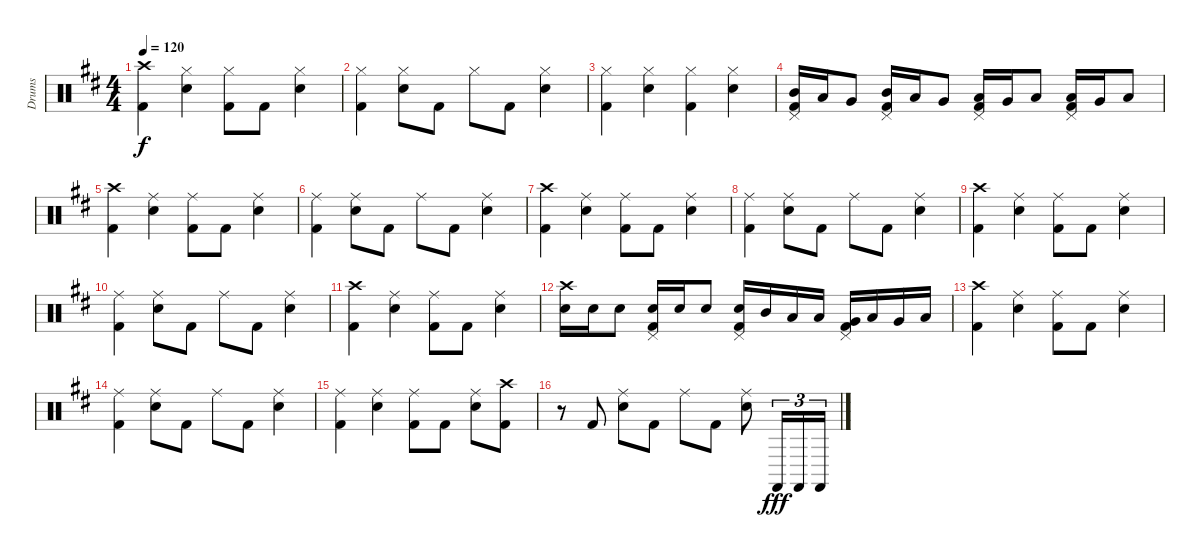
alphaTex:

\track ("Drums" "Drums") {instrument percussion}
\staff {score}
\articulation defaults
\ts (4 4)
\tempo 120
\clef neutral
\ks bminor
("Crash high (hit)" "Kick (hit) 2").4{dy f} ("Hi-Hat (closed)" "Electric Snare (hit)").4 ("Hi-Hat (closed)" "Kick (hit) 2").8 "Kick (hit) 2".8 ("Hi-Hat (closed)" "Electric Snare (hit)").4 |
("Hi-Hat (closed)" "Kick (hit) 2").4 ("Hi-Hat (closed)" "Electric Snare (hit)").8 "Kick (hit) 2".8 "Hi-Hat (closed)".8 "Kick (hit) 2".8 ("Hi-Hat (closed)" "Electric Snare (hit)").4 |
("Hi-Hat (closed)" "Kick (hit) 2").4 ("Hi-Hat (closed)" "Electric Snare (hit)").4 ("Hi-Hat (closed)" "Kick (hit) 2").4 ("Hi-Hat (closed)" "Electric Snare (hit)").4 |
("Pedal Hi-Hat (hit)" "Mid Tom (hit)" "Kick (hit) 2").16 "Low Tom (hit)".16 "Very Low Tom (hit)".8 ("Pedal Hi-Hat (hit)" "Mid Tom (hit)" "Kick (hit) 2").16 "Low Tom (hit)".16 "Very Low Tom (hit)".8 ("Pedal Hi-Hat (hit)" "Low Tom (hit)" "Kick (hit) 2").16 "Very Low Tom (hit)".16 "Low Floor Tom (hit)".8 ("Pedal Hi-Hat (hit)" "Low Floor Tom (hit)" "Kick (hit) 2").16 "Very Low Tom (hit)".16 "Low Floor Tom (hit)".8 |
("Crash high (hit)" "Kick (hit) 2").4 ("Ride (middle)" "Electric Snare (hit)").4 ("Ride (middle)" "Kick (hit) 2").8 "Kick (hit) 2".8 ("Ride (middle)" "Electric Snare (hit)").4 |
("Ride (middle)" "Kick (hit) 2").4 ("Ride (middle)" "Electric Snare (hit)").8 "Kick (hit) 2".8 "Ride (middle)".8 "Kick (hit) 2".8 ("Ride (middle)" "Electric Snare (hit)").4 |
("Crash high (hit)" "Kick (hit) 2").4 ("Ride (middle)" "Electric Snare (hit)").4 ("Ride (middle)" "Kick (hit) 2").8 "Kick (hit) 2".8 ("Ride (middle)" "Electric Snare (hit)").4 |
("Ride (middle)" "Kick (hit) 2").4 ("Ride (middle)" "Electric Snare (hit)").8 "Kick (hit) 2".8 "Ride (middle)".8 "Kick (hit) 2".8 ("Ride (middle)" "Electric Snare (hit)").4 |
("Crash high (hit)" "Kick (hit) 2").4 ("Ride (middle)" "Electric Snare (hit)").4 ("Ride (middle)" "Kick (hit) 2").8 "Kick (hit) 2".8 ("Ride (middle)" "Electric Snare (hit)").4 |
("Ride (middle)" "Kick (hit) 2").4 ("Ride (middle)" "Electric Snare (hit)").8 "Kick (hit) 2".8 "Ride (middle)".8 "Kick (hit) 2".8 ("Ride (middle)" "Electric Snare (hit)").4 |
("Crash high (hit)" "Kick (hit) 2").4 ("Ride (middle)" "Electric Snare (hit)").4 ("Ride (middle)" "Kick (hit) 2").8 "Kick (hit) 2".8 ("Ride (middle)" "Electric Snare (hit)").4 |
("Crash high (hit)" "Electric Snare (hit)").16 "Electric Snare (hit)".16 "Electric Snare (hit)".8 ("Pedal Hi-Hat (hit)" "Electric Snare (hit)" "Kick (hit) 2").16 "Electric Snare (hit)".16 "Electric Snare (hit)".8 ("Pedal Hi-Hat (hit)" "Electric Snare (hit)" "Kick (hit) 2").16 "Mid Tom (hit)".16 "Low Tom (hit)".16 "Low Tom (hit)".16 ("Pedal Hi-Hat (hit)" "Very Low Tom (hit)" "Kick (hit) 2").16 "Low Tom (hit)".16 "Very Low Tom (hit)".16 "Low Floor Tom (hit)".16 |
("Crash high (hit)" "Kick (hit) 2").4 ("Ride (middle)" "Electric Snare (hit)").4 ("Ride (middle)" "Kick (hit) 2").8 "Kick (hit) 2".8 ("Ride (middle)" "Electric Snare (hit)").4 |
("Ride (middle)" "Kick (hit) 2").4 ("Ride (middle)" "Electric Snare (hit)").8 "Kick (hit) 2".8 "Ride (middle)".8 "Kick (hit) 2".8 ("Ride (middle)" "Electric Snare (hit)").4 |
("Ride (middle)" "Kick (hit) 2").4 ("Ride (middle)" "Electric Snare (hit)").4 ("Ride (middle)" "Kick (hit) 2").8 "Kick (hit) 2".8 ("Ride (middle)" "Electric Snare (hit)").8 ("Crash high (hit)" "Kick (hit) 2").8 |
r.8 "Kick (hit) 2".8 ("Ride (middle)" "Electric Snare (hit)").8 "Kick (hit) 2".8 "Ride (middle)".8 "Kick (hit) 2".8 ("Ride (middle)" "Electric Snare (hit)").8 "Castanets (hit)".16{tu (3 2) dy fff} "Castanets (hit)".16{tu (3 2)} "Castanets (hit)".16{tu (3 2)}
